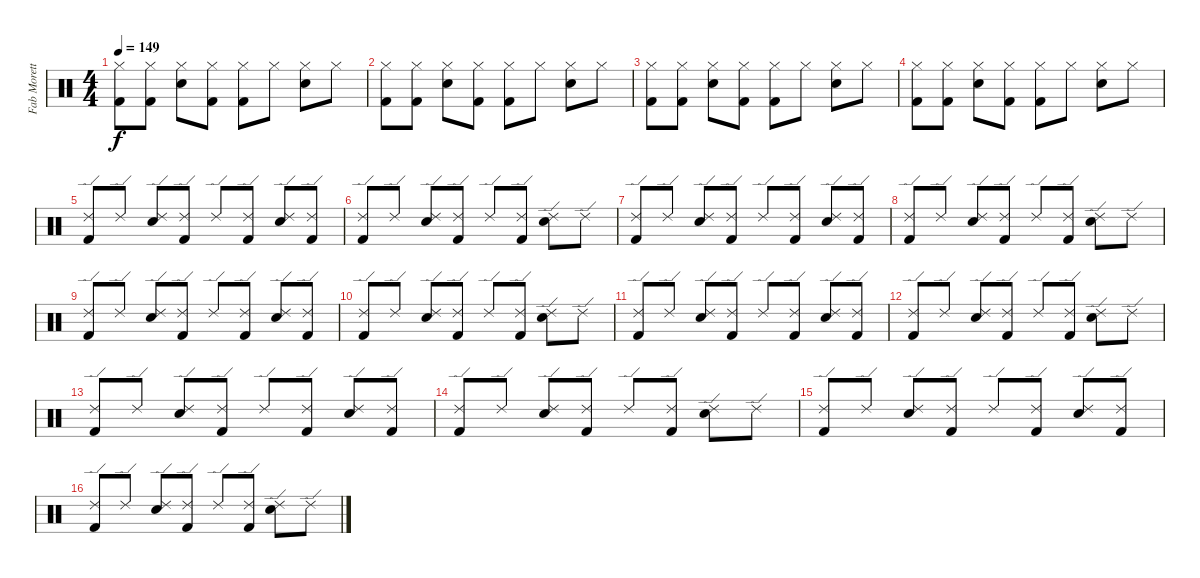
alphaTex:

\track ("Fab Moretti" "Fab Morett") {instrument percussion}
\staff {score}
\articulation defaults
\ts (4 4)
\tempo 149
\clef neutral
\ks c
("Hi-Hat (closed)" "Kick (hit) 2").8{dy f} ("Hi-Hat (closed)" "Kick (hit) 2").8 ("Hi-Hat (closed)" "Electric Snare (hit)").8 ("Hi-Hat (closed)" "Kick (hit) 2").8 ("Hi-Hat (closed)" "Kick (hit) 2").8 "Hi-Hat (closed)".8 ("Hi-Hat (closed)" "Electric Snare (hit)").8 "Hi-Hat (closed)".8 |
("Hi-Hat (closed)" "Kick (hit) 2").8 ("Hi-Hat (closed)" "Kick (hit) 2").8 ("Hi-Hat (closed)" "Electric Snare (hit)").8 ("Hi-Hat (closed)" "Kick (hit) 2").8 ("Hi-Hat (closed)" "Kick (hit) 2").8 "Hi-Hat (closed)".8 ("Hi-Hat (closed)" "Electric Snare (hit)").8 "Hi-Hat (closed)".8 |
("Hi-Hat (closed)" "Kick (hit) 2").8 ("Hi-Hat (closed)" "Kick (hit) 2").8 ("Hi-Hat (closed)" "Electric Snare (hit)").8 ("Hi-Hat (closed)" "Kick (hit) 2").8 ("Hi-Hat (closed)" "Kick (hit) 2").8 "Hi-Hat (closed)".8 ("Hi-Hat (closed)" "Electric Snare (hit)").8 "Hi-Hat (closed)".8 |
("Hi-Hat (closed)" "Kick (hit) 2").8 ("Hi-Hat (closed)" "Kick (hit) 2").8 ("Hi-Hat (closed)" "Electric Snare (hit)").8 ("Hi-Hat (closed)" "Kick (hit) 2").8 ("Hi-Hat (closed)" "Kick (hit) 2").8 "Hi-Hat (closed)".8 ("Hi-Hat (closed)" "Electric Snare (hit)").8 "Hi-Hat (closed)".8 |
("Ride (edge) 2" "Kick (hit) 2").8 "Ride (edge) 2".8 ("Ride (edge) 2" "Electric Snare (hit)").8 ("Ride (edge) 2" "Kick (hit) 2").8 "Ride (edge) 2".8 ("Ride (edge) 2" "Kick (hit) 2").8 ("Ride (edge) 2" "Electric Snare (hit)").8 ("Ride (edge) 2" "Kick (hit) 2").8 |
("Ride (edge) 2" "Kick (hit) 2").8 "Ride (edge) 2".8 ("Ride (edge) 2" "Electric Snare (hit)").8 ("Ride (edge) 2" "Kick (hit) 2").8 "Ride (edge) 2".8 ("Ride (edge) 2" "Kick (hit) 2").8 ("Ride (edge) 2" "Electric Snare (hit)").8 "Ride (edge) 2".8 |
("Ride (edge) 2" "Kick (hit) 2").8 "Ride (edge) 2".8 ("Ride (edge) 2" "Electric Snare (hit)").8 ("Ride (edge) 2" "Kick (hit) 2").8 "Ride (edge) 2".8 ("Ride (edge) 2" "Kick (hit) 2").8 ("Ride (edge) 2" "Electric Snare (hit)").8 ("Ride (edge) 2" "Kick (hit) 2").8 |
("Ride (edge) 2" "Kick (hit) 2").8 "Ride (edge) 2".8 ("Ride (edge) 2" "Electric Snare (hit)").8 ("Ride (edge) 2" "Kick (hit) 2").8 "Ride (edge) 2".8 ("Ride (edge) 2" "Kick (hit) 2").8 ("Ride (edge) 2" "Electric Snare (hit)").8 "Ride (edge) 2".8 |
("Ride (edge) 2" "Kick (hit) 2").8 "Ride (edge) 2".8 ("Ride (edge) 2" "Electric Snare (hit)").8 ("Ride (edge) 2" "Kick (hit) 2").8 "Ride (edge) 2".8 ("Ride (edge) 2" "Kick (hit) 2").8 ("Ride (edge) 2" "Electric Snare (hit)").8 ("Ride (edge) 2" "Kick (hit) 2").8 |
("Ride (edge) 2" "Kick (hit) 2").8 "Ride (edge) 2".8 ("Ride (edge) 2" "Electric Snare (hit)").8 ("Ride (edge) 2" "Kick (hit) 2").8 "Ride (edge) 2".8 ("Ride (edge) 2" "Kick (hit) 2").8 ("Ride (edge) 2" "Electric Snare (hit)").8 "Ride (edge) 2".8 |
("Ride (edge) 2" "Kick (hit) 2").8 "Ride (edge) 2".8 ("Ride (edge) 2" "Electric Snare (hit)").8 ("Ride (edge) 2" "Kick (hit) 2").8 "Ride (edge) 2".8 ("Ride (edge) 2" "Kick (hit) 2").8 ("Ride (edge) 2" "Electric Snare (hit)").8 ("Ride (edge) 2" "Kick (hit) 2").8 |
("Ride (edge) 2" "Kick (hit) 2").8 "Ride (edge) 2".8 ("Ride (edge) 2" "Electric Snare (hit)").8 ("Ride (edge) 2" "Kick (hit) 2").8 "Ride (edge) 2".8 ("Ride (edge) 2" "Kick (hit) 2").8 ("Ride (edge) 2" "Electric Snare (hit)").8 "Ride (edge) 2".8 |
("Ride (edge) 2" "Kick (hit) 2").8 "Ride (edge) 2".8 ("Ride (edge) 2" "Electric Snare (hit)").8 ("Ride (edge) 2" "Kick (hit) 2").8 "Ride (edge) 2".8 ("Ride (edge) 2" "Kick (hit) 2").8 ("Ride (edge) 2" "Electric Snare (hit)").8 ("Ride (edge) 2" "Kick (hit) 2").8 |
("Ride (edge) 2" "Kick (hit) 2").8 "Ride (edge) 2".8 ("Ride (edge) 2" "Electric Snare (hit)").8 ("Ride (edge) 2" "Kick (hit) 2").8 "Ride (edge) 2".8 ("Ride (edge) 2" "Kick (hit) 2").8 ("Ride (edge) 2" "Electric Snare (hit)").8 "Ride (edge) 2".8 |
("Ride (edge) 2" "Kick (hit) 2").8 "Ride (edge) 2".8 ("Ride (edge) 2" "Electric Snare (hit)").8 ("Ride (edge) 2" "Kick (hit) 2").8 "Ride (edge) 2".8 ("Ride (edge) 2" "Kick (hit) 2").8 ("Ride (edge) 2" "Electric Snare (hit)").8 ("Ride (edge) 2" "Kick (hit) 2").8 |
("Ride (edge) 2" "Kick (hit) 2").8 "Ride (edge) 2".8 ("Ride (edge) 2" "Electric Snare (hit)").8 ("Ride (edge) 2" "Kick (hit) 2").8 "Ride (edge) 2".8 ("Ride (edge) 2" "Kick (hit) 2").8 ("Ride (edge) 2" "Electric Snare (hit)").8 "Ride (edge) 2".8
